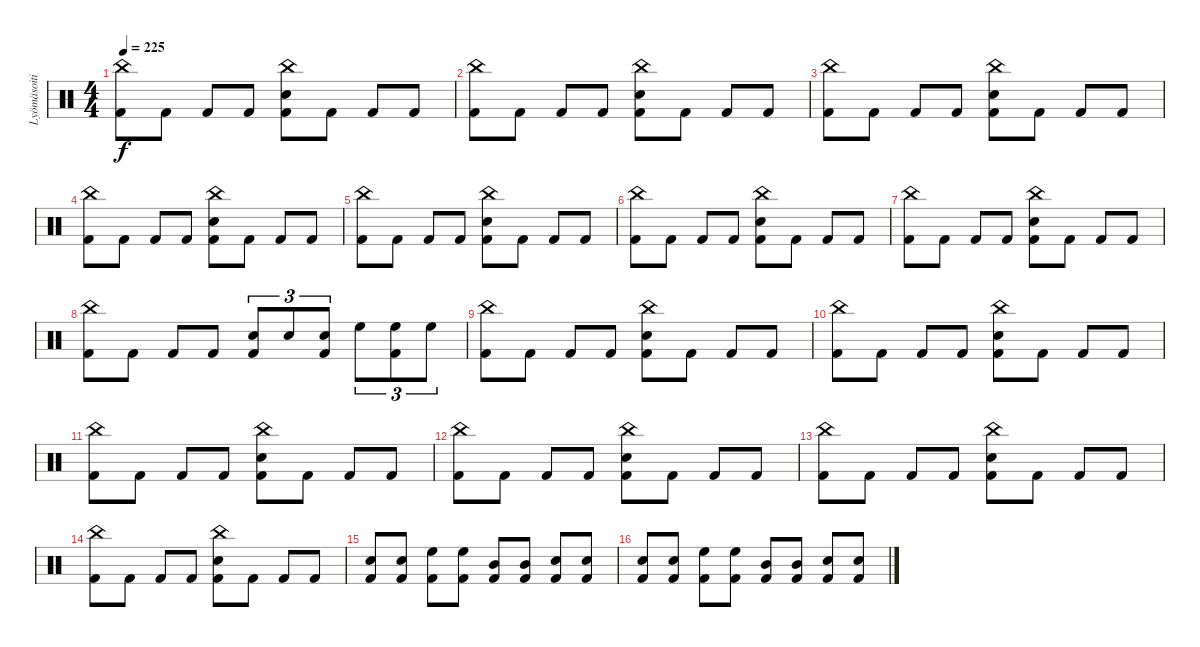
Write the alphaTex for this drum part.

\track ("Lyömäsoitin" "Lyömäsoiti") {instrument percussion}
\staff {score}
\articulation defaults
\ts (4 4)
\tempo 225
\clef neutral
\ks c
("China (hit)" "Kick (hit) 2").8{dy f} "Kick (hit) 2".8 "Kick (hit) 2".8 "Kick (hit) 2".8 ("China (hit)" "Snare (hit) 2" "Kick (hit) 2").8 "Kick (hit) 2".8 "Kick (hit) 2".8 "Kick (hit) 2".8 |
("China (hit)" "Kick (hit) 2").8 "Kick (hit) 2".8 "Kick (hit) 2".8 "Kick (hit) 2".8 ("China (hit)" "Snare (hit) 2" "Kick (hit) 2").8 "Kick (hit) 2".8 "Kick (hit) 2".8 "Kick (hit) 2".8 |
("China (hit)" "Kick (hit) 2").8 "Kick (hit) 2".8 "Kick (hit) 2".8 "Kick (hit) 2".8 ("China (hit)" "Snare (hit) 2" "Kick (hit) 2").8 "Kick (hit) 2".8 "Kick (hit) 2".8 "Kick (hit) 2".8 |
("China (hit)" "Kick (hit) 2").8 "Kick (hit) 2".8 "Kick (hit) 2".8 "Kick (hit) 2".8 ("China (hit)" "Snare (hit) 2" "Kick (hit) 2").8 "Kick (hit) 2".8 "Kick (hit) 2".8 "Kick (hit) 2".8 |
("China (hit)" "Kick (hit) 2").8 "Kick (hit) 2".8 "Kick (hit) 2".8 "Kick (hit) 2".8 ("China (hit)" "Snare (hit) 2" "Kick (hit) 2").8 "Kick (hit) 2".8 "Kick (hit) 2".8 "Kick (hit) 2".8 |
("China (hit)" "Kick (hit) 2").8 "Kick (hit) 2".8 "Kick (hit) 2".8 "Kick (hit) 2".8 ("China (hit)" "Snare (hit) 2" "Kick (hit) 2").8 "Kick (hit) 2".8 "Kick (hit) 2".8 "Kick (hit) 2".8 |
("China (hit)" "Kick (hit) 2").8 "Kick (hit) 2".8 "Kick (hit) 2".8 "Kick (hit) 2".8 ("China (hit)" "Snare (hit) 2" "Kick (hit) 2").8 "Kick (hit) 2".8 "Kick (hit) 2".8 "Kick (hit) 2".8 |
("China (hit)" "Kick (hit) 2").8 "Kick (hit) 2".8 "Kick (hit) 2".8 "Kick (hit) 2".8 ("Snare (hit) 2" "Kick (hit) 2").8{tu (3 2)} "Snare (hit) 2".8{tu (3 2)} ("Snare (hit) 2" "Kick (hit) 2").8{tu (3 2)} "High Floor Tom (hit)".8{tu (3 2)} ("High Floor Tom (hit)" "Kick (hit) 2").8{tu (3 2)} "High Floor Tom (hit)".8{tu (3 2)} |
("China (hit)" "Kick (hit) 2").8 "Kick (hit) 2".8 "Kick (hit) 2".8 "Kick (hit) 2".8 ("China (hit)" "Snare (hit) 2" "Kick (hit) 2").8 "Kick (hit) 2".8 "Kick (hit) 2".8 "Kick (hit) 2".8 |
("China (hit)" "Kick (hit) 2").8 "Kick (hit) 2".8 "Kick (hit) 2".8 "Kick (hit) 2".8 ("China (hit)" "Snare (hit) 2" "Kick (hit) 2").8 "Kick (hit) 2".8 "Kick (hit) 2".8 "Kick (hit) 2".8 |
("China (hit)" "Kick (hit) 2").8 "Kick (hit) 2".8 "Kick (hit) 2".8 "Kick (hit) 2".8 ("China (hit)" "Snare (hit) 2" "Kick (hit) 2").8 "Kick (hit) 2".8 "Kick (hit) 2".8 "Kick (hit) 2".8 |
("China (hit)" "Kick (hit) 2").8 "Kick (hit) 2".8 "Kick (hit) 2".8 "Kick (hit) 2".8 ("China (hit)" "Snare (hit) 2" "Kick (hit) 2").8 "Kick (hit) 2".8 "Kick (hit) 2".8 "Kick (hit) 2".8 |
("China (hit)" "Kick (hit) 2").8 "Kick (hit) 2".8 "Kick (hit) 2".8 "Kick (hit) 2".8 ("China (hit)" "Snare (hit) 2" "Kick (hit) 2").8 "Kick (hit) 2".8 "Kick (hit) 2".8 "Kick (hit) 2".8 |
("China (hit)" "Kick (hit) 2").8 "Kick (hit) 2".8 "Kick (hit) 2".8 "Kick (hit) 2".8 ("China (hit)" "Snare (hit) 2" "Kick (hit) 2").8 "Kick (hit) 2".8 "Kick (hit) 2".8 "Kick (hit) 2".8 |
("Snare (hit) 2" "Kick (hit) 2").8 ("Snare (hit) 2" "Kick (hit) 2").8 ("High Floor Tom (hit)" "Kick (hit) 2").8 ("High Floor Tom (hit)" "Kick (hit) 2").8 ("Mid Tom (hit)" "Kick (hit) 2").8 ("Mid Tom (hit)" "Kick (hit) 2").8 ("Snare (hit) 2" "Kick (hit) 2").8 ("Snare (hit) 2" "Kick (hit) 2").8 |
("Snare (hit) 2" "Kick (hit) 2").8 ("Snare (hit) 2" "Kick (hit) 2").8 ("High Floor Tom (hit)" "Kick (hit) 2").8 ("High Floor Tom (hit)" "Kick (hit) 2").8 ("Mid Tom (hit)" "Kick (hit) 2").8 ("Mid Tom (hit)" "Kick (hit) 2").8 ("Snare (hit) 2" "Kick (hit) 2").8 ("Snare (hit) 2" "Kick (hit) 2").8
